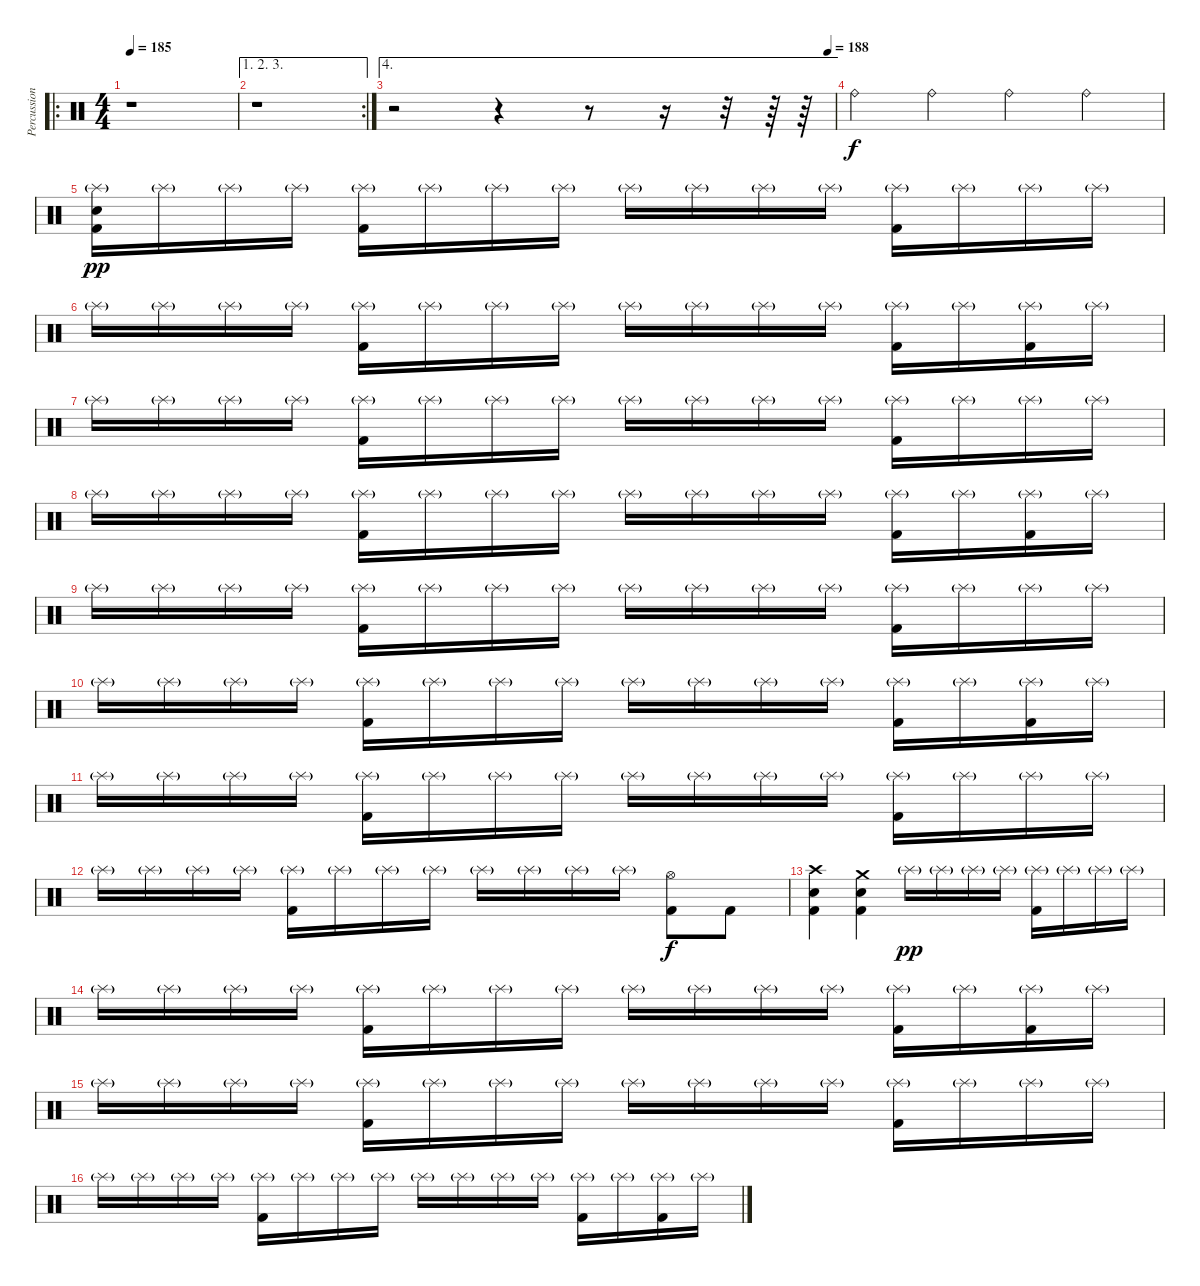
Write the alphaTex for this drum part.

\track ("Percussion" "Percussion") {instrument percussion}
\staff {score}
\articulation defaults
\ro
\ts (4 4)
\tempo 185
\clef neutral
\ks c
r.1{dy f} |
\ae (1 2 3)
\rc 2
r.1 |
\ae 4
\tempo (188 0.984375)
r.2 r.4 r.8 r.16 r.32 r.64 r.64 |
"Ride (bell)".4 "Ride (bell)".4 "Ride (bell)".4 "Ride (bell)".4 |
("Splash (hit)"{g} "Electric Snare (hit)" "Kick (hit) 2").16{dy pp} "Splash (hit)"{g}.16 "Splash (hit)"{g}.16 "Splash (hit)"{g}.16 ("Splash (hit)"{g} "Kick (hit) 2").16 "Splash (hit)"{g}.16 "Splash (hit)"{g}.16 "Splash (hit)"{g}.16 "Splash (hit)"{g}.16 "Splash (hit)"{g}.16 "Splash (hit)"{g}.16 "Splash (hit)"{g}.16 ("Splash (hit)"{g} "Kick (hit) 2").16 "Splash (hit)"{g}.16 "Splash (hit)"{g}.16 "Splash (hit)"{g}.16 |
"Splash (hit)"{g}.16 "Splash (hit)"{g}.16 "Splash (hit)"{g}.16 "Splash (hit)"{g}.16 ("Splash (hit)"{g} "Kick (hit) 2").16 "Splash (hit)"{g}.16 "Splash (hit)"{g}.16 "Splash (hit)"{g}.16 "Splash (hit)"{g}.16 "Splash (hit)"{g}.16 "Splash (hit)"{g}.16 "Splash (hit)"{g}.16 ("Splash (hit)"{g} "Kick (hit) 2").16 "Splash (hit)"{g}.16 ("Splash (hit)"{g} "Kick (hit) 2").16 "Splash (hit)"{g}.16 |
"Splash (hit)"{g}.16 "Splash (hit)"{g}.16 "Splash (hit)"{g}.16 "Splash (hit)"{g}.16 ("Splash (hit)"{g} "Kick (hit) 2").16 "Splash (hit)"{g}.16 "Splash (hit)"{g}.16 "Splash (hit)"{g}.16 "Splash (hit)"{g}.16 "Splash (hit)"{g}.16 "Splash (hit)"{g}.16 "Splash (hit)"{g}.16 ("Splash (hit)"{g} "Kick (hit) 2").16 "Splash (hit)"{g}.16 "Splash (hit)"{g}.16 "Splash (hit)"{g}.16 |
"Splash (hit)"{g}.16 "Splash (hit)"{g}.16 "Splash (hit)"{g}.16 "Splash (hit)"{g}.16 ("Splash (hit)"{g} "Kick (hit) 2").16 "Splash (hit)"{g}.16 "Splash (hit)"{g}.16 "Splash (hit)"{g}.16 "Splash (hit)"{g}.16 "Splash (hit)"{g}.16 "Splash (hit)"{g}.16 "Splash (hit)"{g}.16 ("Splash (hit)"{g} "Kick (hit) 2").16 "Splash (hit)"{g}.16 ("Splash (hit)"{g} "Kick (hit) 2").16 "Splash (hit)"{g}.16 |
"Splash (hit)"{g}.16 "Splash (hit)"{g}.16 "Splash (hit)"{g}.16 "Splash (hit)"{g}.16 ("Splash (hit)"{g} "Kick (hit) 2").16 "Splash (hit)"{g}.16 "Splash (hit)"{g}.16 "Splash (hit)"{g}.16 "Splash (hit)"{g}.16 "Splash (hit)"{g}.16 "Splash (hit)"{g}.16 "Splash (hit)"{g}.16 ("Splash (hit)"{g} "Kick (hit) 2").16 "Splash (hit)"{g}.16 "Splash (hit)"{g}.16 "Splash (hit)"{g}.16 |
"Splash (hit)"{g}.16 "Splash (hit)"{g}.16 "Splash (hit)"{g}.16 "Splash (hit)"{g}.16 ("Splash (hit)"{g} "Kick (hit) 2").16 "Splash (hit)"{g}.16 "Splash (hit)"{g}.16 "Splash (hit)"{g}.16 "Splash (hit)"{g}.16 "Splash (hit)"{g}.16 "Splash (hit)"{g}.16 "Splash (hit)"{g}.16 ("Splash (hit)"{g} "Kick (hit) 2").16 "Splash (hit)"{g}.16 ("Splash (hit)"{g} "Kick (hit) 2").16 "Splash (hit)"{g}.16 |
"Splash (hit)"{g}.16 "Splash (hit)"{g}.16 "Splash (hit)"{g}.16 "Splash (hit)"{g}.16 ("Splash (hit)"{g} "Kick (hit) 2").16 "Splash (hit)"{g}.16 "Splash (hit)"{g}.16 "Splash (hit)"{g}.16 "Splash (hit)"{g}.16 "Splash (hit)"{g}.16 "Splash (hit)"{g}.16 "Splash (hit)"{g}.16 ("Splash (hit)"{g} "Kick (hit) 2").16 "Splash (hit)"{g}.16 "Splash (hit)"{g}.16 "Splash (hit)"{g}.16 |
"Splash (hit)"{g}.16 "Splash (hit)"{g}.16 "Splash (hit)"{g}.16 "Splash (hit)"{g}.16 ("Splash (hit)"{g} "Kick (hit) 2").16 "Splash (hit)"{g}.16 "Splash (hit)"{g}.16 "Splash (hit)"{g}.16 "Splash (hit)"{g}.16 "Splash (hit)"{g}.16 "Splash (hit)"{g}.16 "Splash (hit)"{g}.16 ("Hi-Hat (open)" "Kick (hit) 2").8{dy f} "Kick (hit) 2".8 |
("Crash high (hit)" "Electric Snare (hit)" "Kick (hit) 2").4 ("Crash medium (hit)" "Electric Snare (hit)" "Kick (hit) 2").4 "Splash (hit)"{g}.16{dy pp} "Splash (hit)"{g}.16 "Splash (hit)"{g}.16 "Splash (hit)"{g}.16 ("Splash (hit)"{g} "Kick (hit) 2").16 "Splash (hit)"{g}.16 "Splash (hit)"{g}.16 "Splash (hit)"{g}.16 |
"Splash (hit)"{g}.16 "Splash (hit)"{g}.16 "Splash (hit)"{g}.16 "Splash (hit)"{g}.16 ("Splash (hit)"{g} "Kick (hit) 2").16 "Splash (hit)"{g}.16 "Splash (hit)"{g}.16 "Splash (hit)"{g}.16 "Splash (hit)"{g}.16 "Splash (hit)"{g}.16 "Splash (hit)"{g}.16 "Splash (hit)"{g}.16 ("Splash (hit)"{g} "Kick (hit) 2").16 "Splash (hit)"{g}.16 ("Splash (hit)"{g} "Kick (hit) 2").16 "Splash (hit)"{g}.16 |
"Splash (hit)"{g}.16 "Splash (hit)"{g}.16 "Splash (hit)"{g}.16 "Splash (hit)"{g}.16 ("Splash (hit)"{g} "Kick (hit) 2").16 "Splash (hit)"{g}.16 "Splash (hit)"{g}.16 "Splash (hit)"{g}.16 "Splash (hit)"{g}.16 "Splash (hit)"{g}.16 "Splash (hit)"{g}.16 "Splash (hit)"{g}.16 ("Splash (hit)"{g} "Kick (hit) 2").16 "Splash (hit)"{g}.16 "Splash (hit)"{g}.16 "Splash (hit)"{g}.16 |
"Splash (hit)"{g}.16 "Splash (hit)"{g}.16 "Splash (hit)"{g}.16 "Splash (hit)"{g}.16 ("Splash (hit)"{g} "Kick (hit) 2").16 "Splash (hit)"{g}.16 "Splash (hit)"{g}.16 "Splash (hit)"{g}.16 "Splash (hit)"{g}.16 "Splash (hit)"{g}.16 "Splash (hit)"{g}.16 "Splash (hit)"{g}.16 ("Splash (hit)"{g} "Kick (hit) 2").16 "Splash (hit)"{g}.16 ("Splash (hit)"{g} "Kick (hit) 2").16 "Splash (hit)"{g}.16
